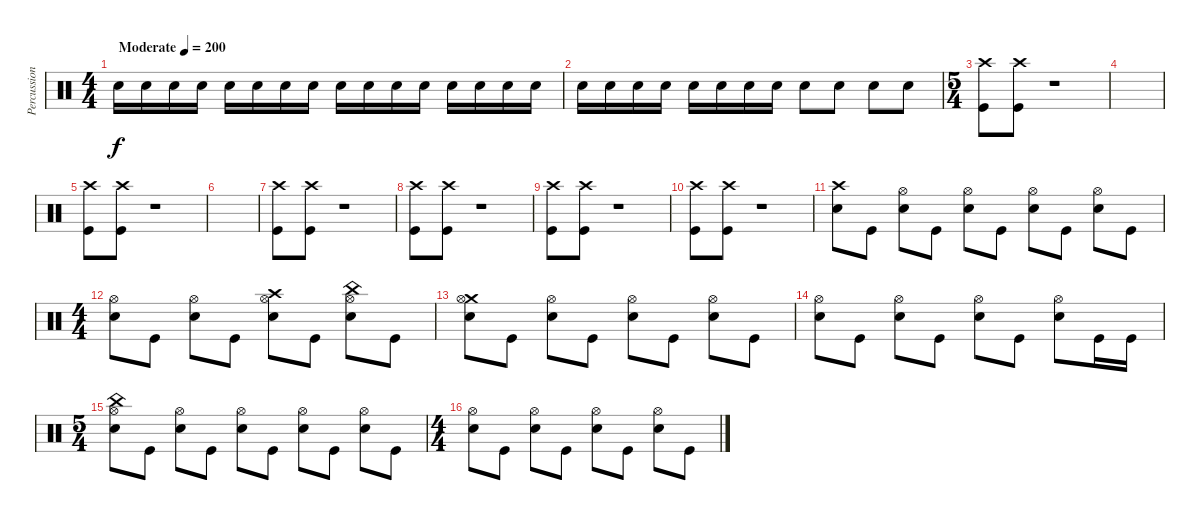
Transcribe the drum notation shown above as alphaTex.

\track ("Percussion" "Percussion") {instrument percussion}
\staff {score}
\articulation defaults
\ts (4 4)
\tempo (200 "Moderate")
\clef neutral
\ks c "Electric Snare (hit)".16{dy f} "Electric Snare (hit)".16 "Electric Snare (hit)".16 "Electric Snare (hit)".16 "Electric Snare (hit)".16 "Electric Snare (hit)".16 "Electric Snare (hit)".16 "Electric Snare (hit)".16 "Electric Snare (hit)".16 "Electric Snare (hit)".16 "Electric Snare (hit)".16 "Electric Snare (hit)".16 "Electric Snare (hit)".16 "Electric Snare (hit)".16 "Electric Snare (hit)".16 "Electric Snare (hit)".16
|
"Electric Snare (hit)".16 "Electric Snare (hit)".16 "Electric Snare (hit)".16 "Electric Snare (hit)".16 "Electric Snare (hit)".16 "Electric Snare (hit)".16 "Electric Snare (hit)".16 "Electric Snare (hit)".16 "Electric Snare (hit)".8 "Electric Snare (hit)".8 "Electric Snare (hit)".8 "Electric Snare (hit)".8 |
\ts (5 4)
("Crash high (hit)" "Kick (hit)").8 ("Crash high (hit)" "Kick (hit)").8 r.1 |
|
("Crash high (hit)" "Kick (hit)").8 ("Crash high (hit)" "Kick (hit)").8 r.1 |
|
("Crash high (hit)" "Kick (hit)").8 ("Crash high (hit)" "Kick (hit)").8 r.1 |
("Crash high (hit)" "Kick (hit)").8 ("Crash high (hit)" "Kick (hit)").8 r.1 |
("Crash high (hit)" "Kick (hit)").8 ("Crash high (hit)" "Kick (hit)").8 r.1 |
("Crash high (hit)" "Kick (hit)").8 ("Crash high (hit)" "Kick (hit)").8 r.1 |
("Crash high (hit)" "Electric Snare (hit)").8 "Kick (hit)".8 ("Hi-Hat (open)" "Electric Snare (hit)").8 "Kick (hit)".8 ("Hi-Hat (open)" "Electric Snare (hit)").8 "Kick (hit)".8 ("Hi-Hat (open)" "Electric Snare (hit)").8 "Kick (hit)".8 ("Hi-Hat (open)" "Electric Snare (hit)").8 "Kick (hit)".8 |
\ts (4 4)
("Hi-Hat (open)" "Electric Snare (hit)").8 "Kick (hit)".8 ("Hi-Hat (open)" "Electric Snare (hit)").8 "Kick (hit)".8 ("Crash high (hit)" "Hi-Hat (open)" "Electric Snare (hit)").8 "Kick (hit)".8 ("China (hit)" "Hi-Hat (open)" "Electric Snare (hit)").8 "Kick (hit)".8 |
("Crash medium (hit)" "Hi-Hat (open)" "Electric Snare (hit)").8 "Kick (hit)".8 ("Hi-Hat (open)" "Electric Snare (hit)").8 "Kick (hit)".8 ("Hi-Hat (open)" "Electric Snare (hit)").8 "Kick (hit)".8 ("Hi-Hat (open)" "Electric Snare (hit)").8 "Kick (hit)".8 |
("Hi-Hat (open)" "Electric Snare (hit)").8 "Kick (hit)".8 ("Hi-Hat (open)" "Electric Snare (hit)").8 "Kick (hit)".8 ("Hi-Hat (open)" "Electric Snare (hit)").8 "Kick (hit)".8 ("Hi-Hat (open)" "Electric Snare (hit)").8 "Kick (hit)".16 "Kick (hit)".16 |
\ts (5 4)
("China (hit)" "Hi-Hat (open)" "Electric Snare (hit)").8 "Kick (hit)".8 ("Hi-Hat (open)" "Electric Snare (hit)").8 "Kick (hit)".8 ("Hi-Hat (open)" "Electric Snare (hit)").8 "Kick (hit)".8 ("Hi-Hat (open)" "Electric Snare (hit)").8 "Kick (hit)".8 ("Hi-Hat (open)" "Electric Snare (hit)").8 "Kick (hit)".8 |
\ts (4 4)
("Hi-Hat (open)" "Electric Snare (hit)").8 "Kick (hit)".8 ("Hi-Hat (open)" "Electric Snare (hit)").8 "Kick (hit)".8 ("Hi-Hat (open)" "Electric Snare (hit)").8 "Kick (hit)".8 ("Hi-Hat (open)" "Electric Snare (hit)").8 "Kick (hit)".8
